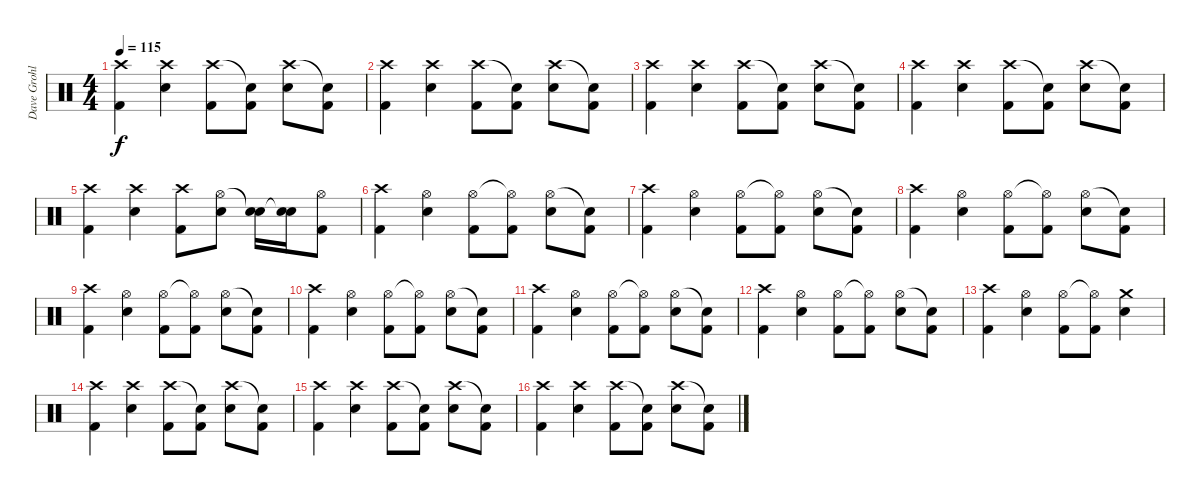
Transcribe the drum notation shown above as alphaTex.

\track ("Dave Grohl - Drums" "Dave Grohl") {instrument percussion}
\staff {score}
\articulation defaults
\ts (4 4)
\tempo 115
\clef neutral
\ks c
("Crash high (hit)" "Kick (hit) 2").4{dy f} ("Crash high (hit)" "Electric Snare (hit)").4 ("Crash high (hit)" "Kick (hit) 2").8 ("Snare (hit)"{t} "Kick (hit) 2").8 ("Crash high (hit)" "Electric Snare (hit)").8 ("Snare (hit)"{t} "Kick (hit) 2").8 |
("Crash high (hit)" "Kick (hit) 2").4 ("Crash high (hit)" "Electric Snare (hit)").4 ("Crash high (hit)" "Kick (hit) 2").8 ("Snare (hit)"{t} "Kick (hit) 2").8 ("Crash high (hit)" "Electric Snare (hit)").8 ("Snare (hit)"{t} "Kick (hit) 2").8 |
("Crash high (hit)" "Kick (hit) 2").4 ("Crash high (hit)" "Electric Snare (hit)").4 ("Crash high (hit)" "Kick (hit) 2").8 ("Snare (hit)"{t} "Kick (hit) 2").8 ("Crash high (hit)" "Electric Snare (hit)").8 ("Snare (hit)"{t} "Kick (hit) 2").8 |
("Crash high (hit)" "Kick (hit) 2").4 ("Crash high (hit)" "Electric Snare (hit)").4 ("Crash high (hit)" "Kick (hit) 2").8 ("Snare (hit)"{t} "Kick (hit) 2").8 ("Crash high (hit)" "Electric Snare (hit)").8 ("Snare (hit)"{t} "Kick (hit) 2").8 |
("Crash high (hit)" "Kick (hit) 2").4 ("Crash high (hit)" "Electric Snare (hit)").4 ("Crash high (hit)" "Kick (hit) 2").8 ("Hi-Hat (open)" "Electric Snare (hit)").8 ("Snare (hit)"{t} "Electric Snare (hit)").16 ("Snare (hit)"{t} "Electric Snare (hit)").16 ("Hi-Hat (open)" "Kick (hit) 2").8 |
("Crash high (hit)" "Kick (hit) 2").4 ("Hi-Hat (open)" "Electric Snare (hit)").4 ("Hi-Hat (open)" "Kick (hit) 2").8 ("Hi-Hat (open)"{t} "Kick (hit) 2").8 ("Hi-Hat (open)" "Electric Snare (hit)").8 ("Snare (hit)"{t} "Kick (hit) 2").8 |
("Crash high (hit)" "Kick (hit) 2").4 ("Hi-Hat (open)" "Electric Snare (hit)").4 ("Hi-Hat (open)" "Kick (hit) 2").8 ("Hi-Hat (open)"{t} "Kick (hit) 2").8 ("Hi-Hat (open)" "Electric Snare (hit)").8 ("Snare (hit)"{t} "Kick (hit) 2").8 |
("Crash high (hit)" "Kick (hit) 2").4 ("Hi-Hat (open)" "Electric Snare (hit)").4 ("Hi-Hat (open)" "Kick (hit) 2").8 ("Hi-Hat (open)"{t} "Kick (hit) 2").8 ("Hi-Hat (open)" "Electric Snare (hit)").8 ("Snare (hit)"{t} "Kick (hit) 2").8 |
("Crash high (hit)" "Kick (hit) 2").4 ("Hi-Hat (open)" "Electric Snare (hit)").4 ("Hi-Hat (open)" "Kick (hit) 2").8 ("Hi-Hat (open)"{t} "Kick (hit) 2").8 ("Hi-Hat (open)" "Electric Snare (hit)").8 ("Snare (hit)"{t} "Kick (hit) 2").8 |
("Crash high (hit)" "Kick (hit) 2").4 ("Hi-Hat (open)" "Electric Snare (hit)").4 ("Hi-Hat (open)" "Kick (hit) 2").8 ("Hi-Hat (open)"{t} "Kick (hit) 2").8 ("Hi-Hat (open)" "Electric Snare (hit)").8 ("Snare (hit)"{t} "Kick (hit) 2").8 |
("Crash high (hit)" "Kick (hit) 2").4 ("Hi-Hat (open)" "Electric Snare (hit)").4 ("Hi-Hat (open)" "Kick (hit) 2").8 ("Hi-Hat (open)"{t} "Kick (hit) 2").8 ("Hi-Hat (open)" "Electric Snare (hit)").8 ("Snare (hit)"{t} "Kick (hit) 2").8 |
("Crash high (hit)" "Kick (hit) 2").4 ("Hi-Hat (open)" "Electric Snare (hit)").4 ("Hi-Hat (open)" "Kick (hit) 2").8 ("Hi-Hat (open)"{t} "Kick (hit) 2").8 ("Hi-Hat (open)" "Electric Snare (hit)").8 ("Snare (hit)"{t} "Kick (hit) 2").8 |
("Crash high (hit)" "Kick (hit) 2").4 ("Hi-Hat (open)" "Electric Snare (hit)").4 ("Hi-Hat (open)" "Kick (hit) 2").8 ("Hi-Hat (open)"{t} "Kick (hit) 2").8 ("Crash medium (hit)" "Electric Snare (hit)").4 |
("Crash high (hit)" "Kick (hit) 2").4 ("Crash high (hit)" "Electric Snare (hit)").4 ("Crash high (hit)" "Kick (hit) 2").8 ("Snare (hit)"{t} "Kick (hit) 2").8 ("Crash high (hit)" "Electric Snare (hit)").8 ("Snare (hit)"{t} "Kick (hit) 2").8 |
("Crash high (hit)" "Kick (hit) 2").4 ("Crash high (hit)" "Electric Snare (hit)").4 ("Crash high (hit)" "Kick (hit) 2").8 ("Snare (hit)"{t} "Kick (hit) 2").8 ("Crash high (hit)" "Electric Snare (hit)").8 ("Snare (hit)"{t} "Kick (hit) 2").8 |
("Crash high (hit)" "Kick (hit) 2").4 ("Crash high (hit)" "Electric Snare (hit)").4 ("Crash high (hit)" "Kick (hit) 2").8 ("Snare (hit)"{t} "Kick (hit) 2").8 ("Crash high (hit)" "Electric Snare (hit)").8 ("Snare (hit)"{t} "Kick (hit) 2").8
